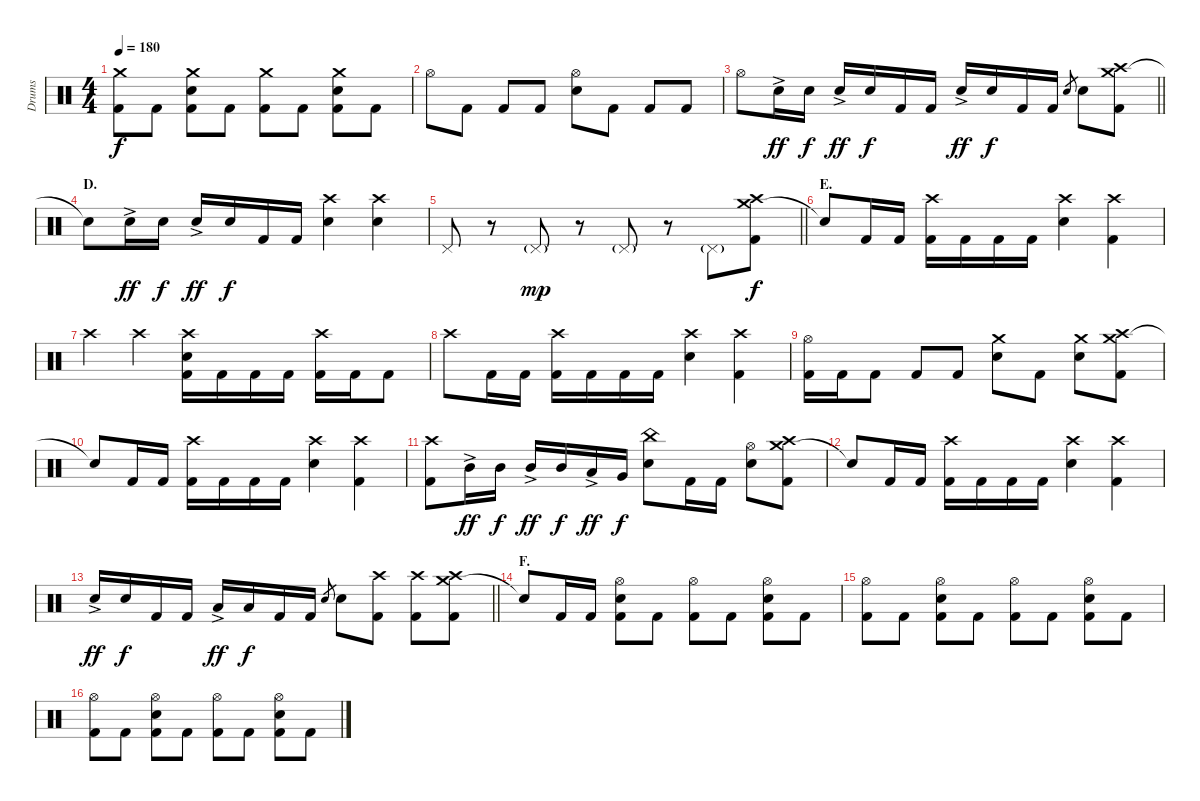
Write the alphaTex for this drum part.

\track ("Drums" "Drums") {instrument percussion}
\staff {score}
\articulation defaults
\ts (4 4)
\tempo 180
\clef neutral
\ks c
("Crash medium (hit)" "Kick (hit) 2").8{dy f} "Kick (hit) 2".8 ("Crash medium (hit)" "Electric Snare (hit)" "Kick (hit) 2").8 "Kick (hit) 2".8 ("Crash medium (hit)" "Kick (hit) 2").8 "Kick (hit) 2".8 ("Crash medium (hit)" "Electric Snare (hit)" "Kick (hit) 2").8 "Kick (hit) 2".8 |
"Hi-Hat (open)".8 "Kick (hit) 2".8 "Kick (hit) 2".8 "Kick (hit) 2".8 ("Hi-Hat (open)" "Electric Snare (hit)").8 "Kick (hit) 2".8 "Kick (hit) 2".8 "Kick (hit) 2".8 |
\barLineRight lightlight "Hi-Hat (open)".8 "Electric Snare (hit)"{ac}.16{dy ff} "Electric Snare (hit)".16{dy f} "Electric Snare (hit)"{ac}.16{dy ff} "Electric Snare (hit)".16{dy f} "Kick (hit) 2".16 "Kick (hit) 2".16 "Electric Snare (hit)"{ac}.16{dy ff} "Electric Snare (hit)".16{dy f} "Kick (hit) 2".16 "Kick (hit) 2".16 "Electric Snare (hit)".8{gr} "Electric Snare (hit)".8
("Crash medium (hit)" "Crash high (hit)" "Kick (hit) 2").8 |
\section ("" "D.")
"Snare (hit)"{t}.8 "Electric Snare (hit)"{ac}.16{dy ff} "Electric Snare (hit)".16{dy f} "Electric Snare (hit)"{ac}.16{dy ff} "Electric Snare (hit)".16{dy f} "Kick (hit) 2".16 "Kick (hit) 2".16 ("Crash high (hit)" "Electric Snare (hit)").4 ("Crash high (hit)" "Electric Snare (hit)").4 |
\barLineRight lightlight "Pedal Hi-Hat (hit)".8
r.8 "Pedal Hi-Hat (hit)"{g}.8{dy mp} r.8 "Pedal Hi-Hat (hit)"{g}.8 r.8 "Pedal Hi-Hat (hit)"{g}.8 ("Crash medium (hit)" "Crash high (hit)" "Kick (hit) 2").8{dy f} |
\section ("" "E.")
"Snare (hit)"{t}.8 "Kick (hit) 2".16 "Kick (hit) 2".16 ("Crash high (hit)" "Kick (hit) 2").16 "Kick (hit) 2".16 "Kick (hit) 2".16 "Kick (hit) 2".16 ("Crash high (hit)" "Electric Snare (hit)").4 ("Crash high (hit)" "Kick (hit) 2").4 |
"Crash high (hit)".4 "Crash high (hit)".4 ("Crash high (hit)" "Electric Snare (hit)" "Kick (hit) 2").16 "Kick (hit) 2".16 "Kick (hit) 2".16 "Kick (hit) 2".16 ("Crash high (hit)" "Kick (hit) 2").16 "Kick (hit) 2".16 "Kick (hit) 2".8 |
"Crash high (hit)".8 "Kick (hit) 2".16 "Kick (hit) 2".16 ("Crash high (hit)" "Kick (hit) 2").16 "Kick (hit) 2".16 "Kick (hit) 2".16 "Kick (hit) 2".16 ("Crash high (hit)" "Electric Snare (hit)").4 ("Crash high (hit)" "Kick (hit) 2").4 |
("Hi-Hat (open)" "Kick (hit) 2").16 "Kick (hit) 2".16 "Kick (hit) 2".8 "Kick (hit) 2".8 "Kick (hit) 2".8 ("Crash medium (hit)" "Electric Snare (hit)").8 "Kick (hit) 2".8 ("Crash medium (hit)" "Electric Snare (hit)").8 ("Crash medium (hit)" "Crash high (hit)" "Kick (hit) 2").8 |
"Snare (hit)"{t}.8 "Kick (hit) 2".16 "Kick (hit) 2".16 ("Crash high (hit)" "Kick (hit) 2").16 "Kick (hit) 2".16 "Kick (hit) 2".16 "Kick (hit) 2".16 ("Crash high (hit)" "Electric Snare (hit)").4 ("Crash high (hit)" "Kick (hit) 2").4 |
("Crash high (hit)" "Kick (hit) 2").8 "Mid Tom (hit)"{ac}.16{dy ff} "Mid Tom (hit)".16{dy f} "Mid Tom (hit)"{ac}.16{dy ff} "Mid Tom (hit)".16{dy f} "Low Tom (hit)"{ac}.16{dy ff} "Very Low Tom (hit)".16{dy f} ("China (hit)" "Electric Snare (hit)").8 "Kick (hit) 2".16 "Kick (hit) 2".16 ("Hi-Hat (open)" "Electric Snare (hit)").8 ("Crash medium (hit)" "Crash high (hit)" "Kick (hit) 2").8 |
"Snare (hit)"{t}.8 "Kick (hit) 2".16 "Kick (hit) 2".16 ("Crash high (hit)" "Kick (hit) 2").16 "Kick (hit) 2".16 "Kick (hit) 2".16 "Kick (hit) 2".16 ("Crash high (hit)" "Electric Snare (hit)").4 ("Crash high (hit)" "Kick (hit) 2").4 |
\barLineRight lightlight "Electric Snare (hit)"{ac}.16{dy ff} "Electric Snare (hit)".16{dy f} "Kick (hit) 2".16 "Kick (hit) 2".16 "Low Tom (hit)"{ac}.16{dy ff} "Low Tom (hit)".16{dy f} "Kick (hit) 2".16 "Kick (hit) 2".16 "Electric Snare (hit)".8{gr} "Electric Snare (hit)".8
("Crash high (hit)" "Kick (hit) 2").8 ("Crash high (hit)" "Kick (hit) 2").8 ("Crash medium (hit)" "Crash high (hit)" "Kick (hit) 2").8 |
\section ("" "F.")
"Snare (hit)"{t}.8 "Kick (hit) 2".16 "Kick (hit) 2".16 ("Hi-Hat (open)" "Electric Snare (hit)" "Kick (hit) 2").8 "Kick (hit) 2".8 ("Hi-Hat (open)" "Kick (hit) 2").8 "Kick (hit) 2".8 ("Hi-Hat (open)" "Electric Snare (hit)" "Kick (hit) 2").8 "Kick (hit) 2".8 |
("Hi-Hat (open)" "Kick (hit) 2").8 "Kick (hit) 2".8 ("Hi-Hat (open)" "Electric Snare (hit)" "Kick (hit) 2").8 "Kick (hit) 2".8 ("Hi-Hat (open)" "Kick (hit) 2").8 "Kick (hit) 2".8 ("Hi-Hat (open)" "Electric Snare (hit)" "Kick (hit) 2").8 "Kick (hit) 2".8 |
("Hi-Hat (open)" "Kick (hit) 2").8 "Kick (hit) 2".8 ("Hi-Hat (open)" "Electric Snare (hit)" "Kick (hit) 2").8 "Kick (hit) 2".8 ("Hi-Hat (open)" "Kick (hit) 2").8 "Kick (hit) 2".8 ("Hi-Hat (open)" "Electric Snare (hit)" "Kick (hit) 2").8 "Kick (hit) 2".8
